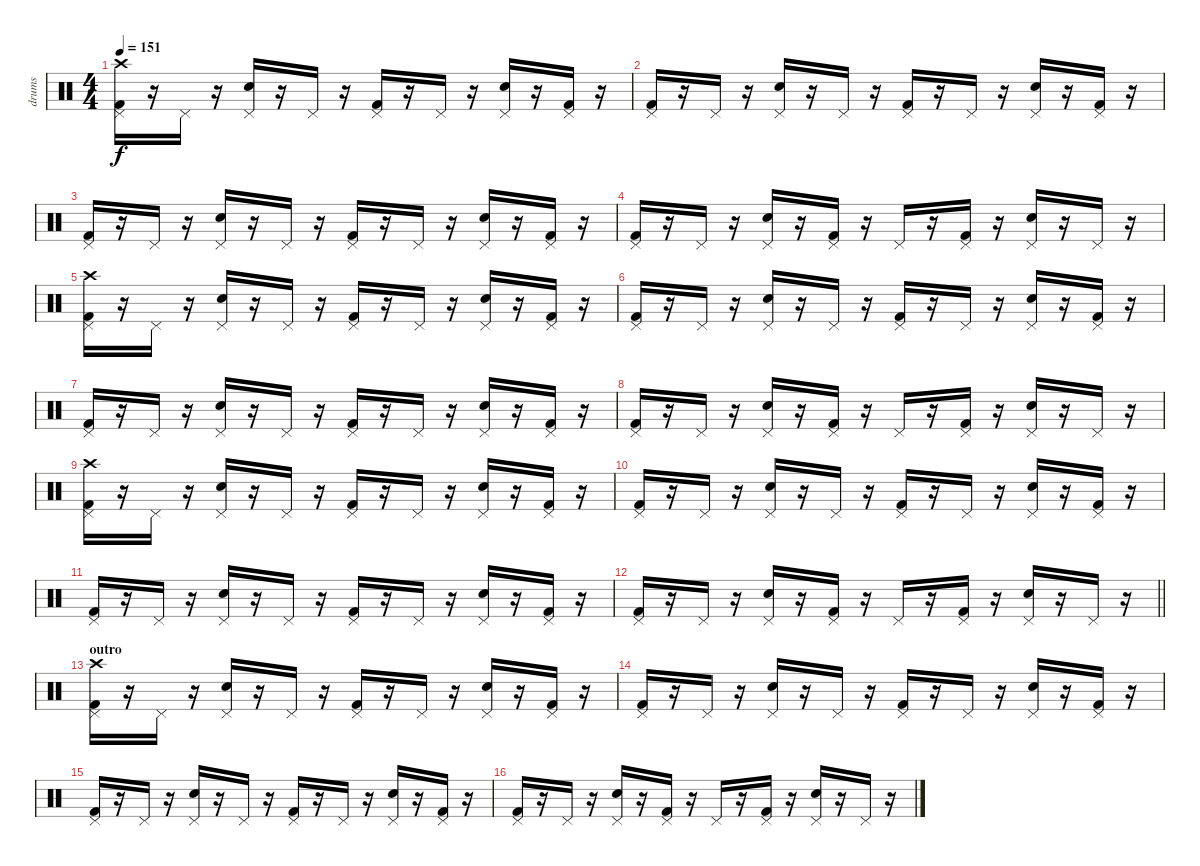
\track ("drums" "drums") {instrument percussion}
\staff {score}
\articulation defaults
\ts (4 4)
\tempo 151
\clef neutral
\ks c
("Kick (hit) 2" "Pedal Hi-Hat (hit)" "Crash high (hit)").16{dy f} r.16 "Pedal Hi-Hat (hit)".16 r.16 ("Electric Snare (hit)" "Pedal Hi-Hat (hit)").16 r.16 "Pedal Hi-Hat (hit)".16 r.16 ("Kick (hit) 2" "Pedal Hi-Hat (hit)").16 r.16 "Pedal Hi-Hat (hit)".16 r.16 ("Electric Snare (hit)" "Pedal Hi-Hat (hit)").16 r.16 ("Kick (hit) 2" "Pedal Hi-Hat (hit)").16 r.16 |
("Kick (hit) 2" "Pedal Hi-Hat (hit)").16 r.16 "Pedal Hi-Hat (hit)".16 r.16 ("Electric Snare (hit)" "Pedal Hi-Hat (hit)").16 r.16 "Pedal Hi-Hat (hit)".16 r.16 ("Kick (hit) 2" "Pedal Hi-Hat (hit)").16 r.16 "Pedal Hi-Hat (hit)".16 r.16 ("Electric Snare (hit)" "Pedal Hi-Hat (hit)").16 r.16 ("Kick (hit) 2" "Pedal Hi-Hat (hit)").16 r.16 |
("Kick (hit) 2" "Pedal Hi-Hat (hit)").16 r.16 "Pedal Hi-Hat (hit)".16 r.16 ("Electric Snare (hit)" "Pedal Hi-Hat (hit)").16 r.16 "Pedal Hi-Hat (hit)".16 r.16 ("Kick (hit) 2" "Pedal Hi-Hat (hit)").16 r.16 "Pedal Hi-Hat (hit)".16 r.16 ("Electric Snare (hit)" "Pedal Hi-Hat (hit)").16 r.16 ("Kick (hit) 2" "Pedal Hi-Hat (hit)").16 r.16 |
("Kick (hit) 2" "Pedal Hi-Hat (hit)").16 r.16 "Pedal Hi-Hat (hit)".16 r.16 ("Electric Snare (hit)" "Pedal Hi-Hat (hit)").16 r.16 ("Kick (hit) 2" "Pedal Hi-Hat (hit)").16 r.16 "Pedal Hi-Hat (hit)".16 r.16 ("Kick (hit) 2" "Pedal Hi-Hat (hit)").16 r.16 ("Electric Snare (hit)" "Pedal Hi-Hat (hit)").16 r.16 "Pedal Hi-Hat (hit)".16 r.16 |
("Kick (hit) 2" "Pedal Hi-Hat (hit)" "Crash high (hit)").16 r.16 "Pedal Hi-Hat (hit)".16 r.16 ("Electric Snare (hit)" "Pedal Hi-Hat (hit)").16 r.16 "Pedal Hi-Hat (hit)".16 r.16 ("Kick (hit) 2" "Pedal Hi-Hat (hit)").16 r.16 "Pedal Hi-Hat (hit)".16 r.16 ("Electric Snare (hit)" "Pedal Hi-Hat (hit)").16 r.16 ("Kick (hit) 2" "Pedal Hi-Hat (hit)").16 r.16 |
("Kick (hit) 2" "Pedal Hi-Hat (hit)").16 r.16 "Pedal Hi-Hat (hit)".16 r.16 ("Electric Snare (hit)" "Pedal Hi-Hat (hit)").16 r.16 "Pedal Hi-Hat (hit)".16 r.16 ("Kick (hit) 2" "Pedal Hi-Hat (hit)").16 r.16 "Pedal Hi-Hat (hit)".16 r.16 ("Electric Snare (hit)" "Pedal Hi-Hat (hit)").16 r.16 ("Kick (hit) 2" "Pedal Hi-Hat (hit)").16 r.16 |
("Kick (hit) 2" "Pedal Hi-Hat (hit)").16 r.16 "Pedal Hi-Hat (hit)".16 r.16 ("Electric Snare (hit)" "Pedal Hi-Hat (hit)").16 r.16 "Pedal Hi-Hat (hit)".16 r.16 ("Kick (hit) 2" "Pedal Hi-Hat (hit)").16 r.16 "Pedal Hi-Hat (hit)".16 r.16 ("Electric Snare (hit)" "Pedal Hi-Hat (hit)").16 r.16 ("Kick (hit) 2" "Pedal Hi-Hat (hit)").16 r.16 |
("Kick (hit) 2" "Pedal Hi-Hat (hit)").16 r.16 "Pedal Hi-Hat (hit)".16 r.16 ("Electric Snare (hit)" "Pedal Hi-Hat (hit)").16 r.16 ("Kick (hit) 2" "Pedal Hi-Hat (hit)").16 r.16 "Pedal Hi-Hat (hit)".16 r.16 ("Kick (hit) 2" "Pedal Hi-Hat (hit)").16 r.16 ("Electric Snare (hit)" "Pedal Hi-Hat (hit)").16 r.16 "Pedal Hi-Hat (hit)".16 r.16 |
("Kick (hit) 2" "Pedal Hi-Hat (hit)" "Crash high (hit)").16 r.16 "Pedal Hi-Hat (hit)".16 r.16 ("Electric Snare (hit)" "Pedal Hi-Hat (hit)").16 r.16 "Pedal Hi-Hat (hit)".16 r.16 ("Kick (hit) 2" "Pedal Hi-Hat (hit)").16 r.16 "Pedal Hi-Hat (hit)".16 r.16 ("Electric Snare (hit)" "Pedal Hi-Hat (hit)").16 r.16 ("Kick (hit) 2" "Pedal Hi-Hat (hit)").16 r.16 |
("Kick (hit) 2" "Pedal Hi-Hat (hit)").16 r.16 "Pedal Hi-Hat (hit)".16 r.16 ("Electric Snare (hit)" "Pedal Hi-Hat (hit)").16 r.16 "Pedal Hi-Hat (hit)".16 r.16 ("Kick (hit) 2" "Pedal Hi-Hat (hit)").16 r.16 "Pedal Hi-Hat (hit)".16 r.16 ("Electric Snare (hit)" "Pedal Hi-Hat (hit)").16 r.16 ("Kick (hit) 2" "Pedal Hi-Hat (hit)").16 r.16 |
("Kick (hit) 2" "Pedal Hi-Hat (hit)").16 r.16 "Pedal Hi-Hat (hit)".16 r.16 ("Electric Snare (hit)" "Pedal Hi-Hat (hit)").16 r.16 "Pedal Hi-Hat (hit)".16 r.16 ("Kick (hit) 2" "Pedal Hi-Hat (hit)").16 r.16 "Pedal Hi-Hat (hit)".16 r.16 ("Electric Snare (hit)" "Pedal Hi-Hat (hit)").16 r.16 ("Kick (hit) 2" "Pedal Hi-Hat (hit)").16 r.16 |
\barLineRight lightlight
("Kick (hit) 2" "Pedal Hi-Hat (hit)").16 r.16 "Pedal Hi-Hat (hit)".16 r.16 ("Electric Snare (hit)" "Pedal Hi-Hat (hit)").16 r.16 ("Kick (hit) 2" "Pedal Hi-Hat (hit)").16 r.16 "Pedal Hi-Hat (hit)".16 r.16 ("Kick (hit) 2" "Pedal Hi-Hat (hit)").16 r.16 ("Electric Snare (hit)" "Pedal Hi-Hat (hit)").16 r.16 "Pedal Hi-Hat (hit)".16 r.16 |
\section ("" "outro")
("Kick (hit) 2" "Pedal Hi-Hat (hit)" "Crash high (hit)").16 r.16 "Pedal Hi-Hat (hit)".16 r.16 ("Electric Snare (hit)" "Pedal Hi-Hat (hit)").16 r.16 "Pedal Hi-Hat (hit)".16 r.16 ("Kick (hit) 2" "Pedal Hi-Hat (hit)").16 r.16 "Pedal Hi-Hat (hit)".16 r.16 ("Electric Snare (hit)" "Pedal Hi-Hat (hit)").16 r.16 ("Kick (hit) 2" "Pedal Hi-Hat (hit)").16 r.16 |
("Kick (hit) 2" "Pedal Hi-Hat (hit)").16 r.16 "Pedal Hi-Hat (hit)".16 r.16 ("Electric Snare (hit)" "Pedal Hi-Hat (hit)").16 r.16 "Pedal Hi-Hat (hit)".16 r.16 ("Kick (hit) 2" "Pedal Hi-Hat (hit)").16 r.16 "Pedal Hi-Hat (hit)".16 r.16 ("Electric Snare (hit)" "Pedal Hi-Hat (hit)").16 r.16 ("Kick (hit) 2" "Pedal Hi-Hat (hit)").16 r.16 |
("Kick (hit) 2" "Pedal Hi-Hat (hit)").16 r.16 "Pedal Hi-Hat (hit)".16 r.16 ("Electric Snare (hit)" "Pedal Hi-Hat (hit)").16 r.16 "Pedal Hi-Hat (hit)".16 r.16 ("Kick (hit) 2" "Pedal Hi-Hat (hit)").16 r.16 "Pedal Hi-Hat (hit)".16 r.16 ("Electric Snare (hit)" "Pedal Hi-Hat (hit)").16 r.16 ("Kick (hit) 2" "Pedal Hi-Hat (hit)").16 r.16 |
("Kick (hit) 2" "Pedal Hi-Hat (hit)").16 r.16 "Pedal Hi-Hat (hit)".16 r.16 ("Electric Snare (hit)" "Pedal Hi-Hat (hit)").16 r.16 ("Kick (hit) 2" "Pedal Hi-Hat (hit)").16 r.16 "Pedal Hi-Hat (hit)".16 r.16 ("Kick (hit) 2" "Pedal Hi-Hat (hit)").16 r.16 ("Electric Snare (hit)" "Pedal Hi-Hat (hit)").16 r.16 "Pedal Hi-Hat (hit)".16 r.16
